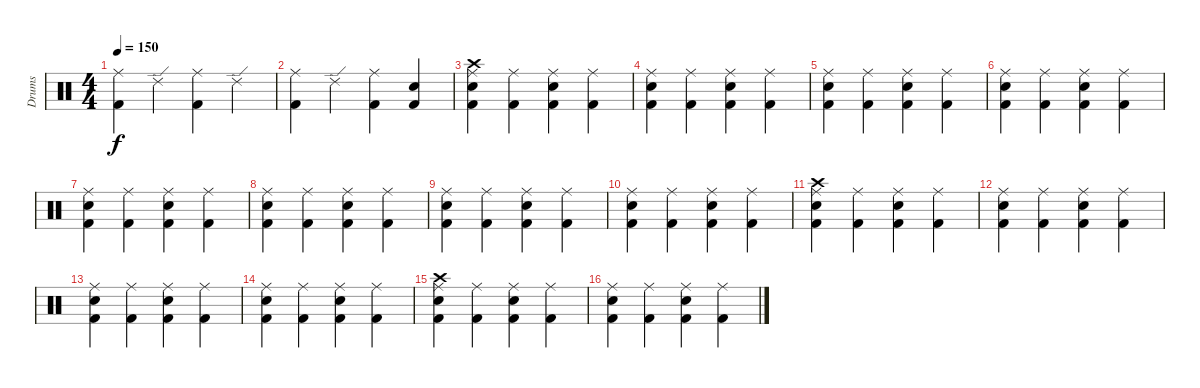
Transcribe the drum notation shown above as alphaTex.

\track ("Drums" "Drums") {instrument percussion}
\staff {score}
\articulation defaults
\ts (4 4)
\tempo 150
\clef neutral
\ks c
("Ride (middle)" "Kick (hit) 2").4{dy f} "Ride (edge) 2".4 ("Ride (middle)" "Kick (hit) 2").4 "Ride (edge) 2".4 |
("Ride (middle)" "Kick (hit) 2").4 "Ride (edge) 2".4 ("Ride (middle)" "Kick (hit) 2").4 ("Electric Snare (hit)" "Kick (hit) 2").4 |
("Crash high (hit)" "Ride (middle)" "Electric Snare (hit)" "Kick (hit) 2").4 ("Ride (middle)" "Kick (hit) 2").4 ("Ride (middle)" "Electric Snare (hit)" "Kick (hit) 2").4 ("Ride (middle)" "Kick (hit) 2").4 |
("Ride (middle)" "Electric Snare (hit)" "Kick (hit) 2").4 ("Ride (middle)" "Kick (hit) 2").4 ("Ride (middle)" "Electric Snare (hit)" "Kick (hit) 2").4 ("Ride (middle)" "Kick (hit) 2").4 |
("Ride (middle)" "Electric Snare (hit)" "Kick (hit) 2").4 ("Ride (middle)" "Kick (hit) 2").4 ("Ride (middle)" "Electric Snare (hit)" "Kick (hit) 2").4 ("Ride (middle)" "Kick (hit) 2").4 |
("Ride (middle)" "Electric Snare (hit)" "Kick (hit) 2").4 ("Ride (middle)" "Kick (hit) 2").4 ("Ride (middle)" "Electric Snare (hit)" "Kick (hit) 2").4 ("Ride (middle)" "Kick (hit) 2").4 |
("Ride (middle)" "Electric Snare (hit)" "Kick (hit) 2").4 ("Ride (middle)" "Kick (hit) 2").4 ("Ride (middle)" "Electric Snare (hit)" "Kick (hit) 2").4 ("Ride (middle)" "Kick (hit) 2").4 |
("Ride (middle)" "Electric Snare (hit)" "Kick (hit) 2").4 ("Ride (middle)" "Kick (hit) 2").4 ("Ride (middle)" "Electric Snare (hit)" "Kick (hit) 2").4 ("Ride (middle)" "Kick (hit) 2").4 |
("Ride (middle)" "Electric Snare (hit)" "Kick (hit) 2").4 ("Ride (middle)" "Kick (hit) 2").4 ("Ride (middle)" "Electric Snare (hit)" "Kick (hit) 2").4 ("Ride (middle)" "Kick (hit) 2").4 |
("Ride (middle)" "Electric Snare (hit)" "Kick (hit) 2").4 ("Ride (middle)" "Kick (hit) 2").4 ("Ride (middle)" "Electric Snare (hit)" "Kick (hit) 2").4 ("Ride (middle)" "Kick (hit) 2").4 |
("Crash high (hit)" "Ride (middle)" "Electric Snare (hit)" "Kick (hit) 2").4 ("Ride (middle)" "Kick (hit) 2").4 ("Ride (middle)" "Electric Snare (hit)" "Kick (hit) 2").4 ("Ride (middle)" "Kick (hit) 2").4 |
("Ride (middle)" "Electric Snare (hit)" "Kick (hit) 2").4 ("Ride (middle)" "Kick (hit) 2").4 ("Ride (middle)" "Electric Snare (hit)" "Kick (hit) 2").4 ("Ride (middle)" "Kick (hit) 2").4 |
("Ride (middle)" "Electric Snare (hit)" "Kick (hit) 2").4 ("Ride (middle)" "Kick (hit) 2").4 ("Ride (middle)" "Electric Snare (hit)" "Kick (hit) 2").4 ("Ride (middle)" "Kick (hit) 2").4 |
("Ride (middle)" "Electric Snare (hit)" "Kick (hit) 2").4 ("Ride (middle)" "Kick (hit) 2").4 ("Ride (middle)" "Electric Snare (hit)" "Kick (hit) 2").4 ("Ride (middle)" "Kick (hit) 2").4 |
("Crash high (hit)" "Ride (middle)" "Electric Snare (hit)" "Kick (hit) 2").4 ("Ride (middle)" "Kick (hit) 2").4 ("Ride (middle)" "Electric Snare (hit)" "Kick (hit) 2").4 ("Ride (middle)" "Kick (hit) 2").4 |
("Ride (middle)" "Electric Snare (hit)" "Kick (hit) 2").4 ("Ride (middle)" "Kick (hit) 2").4 ("Ride (middle)" "Electric Snare (hit)" "Kick (hit) 2").4 ("Ride (middle)" "Kick (hit) 2").4
